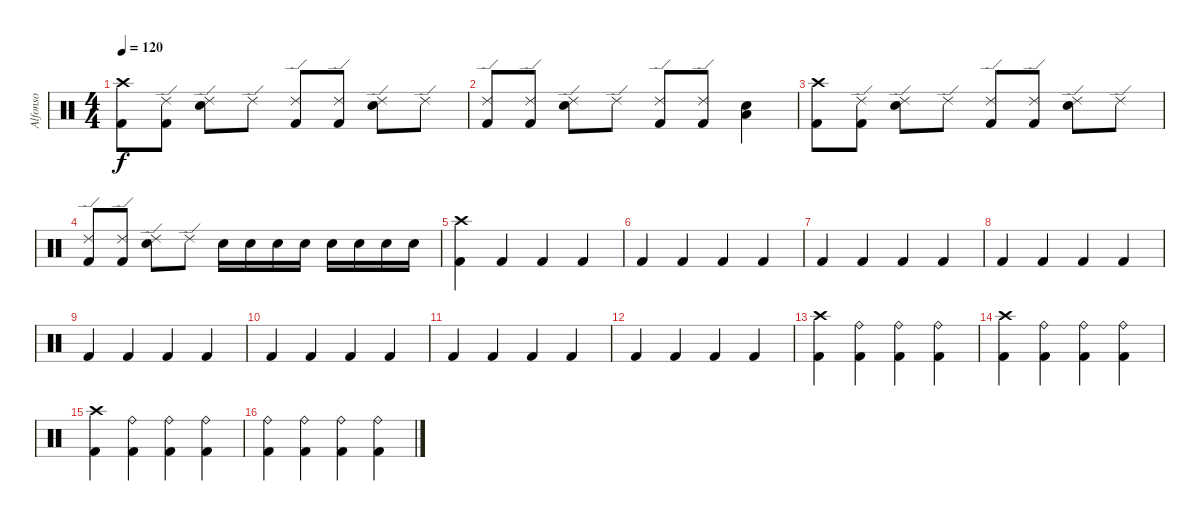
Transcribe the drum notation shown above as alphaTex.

\track ("Alfonso" "Alfonso") {instrument percussion}
\staff {score}
\articulation defaults
\ts (4 4)
\tempo 120
\clef neutral
\ks c
("Crash high (hit)" "Kick (hit) 2").8{dy f} ("Ride (edge) 2" "Kick (hit) 2").8 ("Ride (edge) 2" "Electric Snare (hit)").8 "Ride (edge) 2".8 ("Ride (edge) 2" "Kick (hit) 2").8 ("Ride (edge) 2" "Kick (hit) 2").8 ("Ride (edge) 2" "Electric Snare (hit)").8 "Ride (edge) 2".8 |
("Ride (edge) 2" "Kick (hit) 2").8 ("Ride (edge) 2" "Kick (hit) 2").8 ("Ride (edge) 2" "Electric Snare (hit)").8 "Ride (edge) 2".8 ("Ride (edge) 2" "Kick (hit) 2").8 ("Ride (edge) 2" "Kick (hit) 2").8 ("Low Floor Tom (hit)" "Electric Snare (hit)").4 |
("Crash high (hit)" "Kick (hit) 2").8 ("Ride (edge) 2" "Kick (hit) 2").8 ("Ride (edge) 2" "Electric Snare (hit)").8 "Ride (edge) 2".8 ("Ride (edge) 2" "Kick (hit) 2").8 ("Ride (edge) 2" "Kick (hit) 2").8 ("Ride (edge) 2" "Electric Snare (hit)").8 "Ride (edge) 2".8 |
("Ride (edge) 2" "Kick (hit) 2").8 ("Ride (edge) 2" "Kick (hit) 2").8 ("Ride (edge) 2" "Electric Snare (hit)").8 "Ride (edge) 2".8 "Electric Snare (hit)".16 "Electric Snare (hit)".16 "Electric Snare (hit)".16 "Electric Snare (hit)".16 "Electric Snare (hit)".16 "Electric Snare (hit)".16 "Electric Snare (hit)".16 "Electric Snare (hit)".16 |
("Crash high (hit)" "Kick (hit) 2").4 "Kick (hit) 2".4 "Kick (hit) 2".4 "Kick (hit) 2".4 |
"Kick (hit) 2".4 "Kick (hit) 2".4 "Kick (hit) 2".4 "Kick (hit) 2".4 |
"Kick (hit) 2".4 "Kick (hit) 2".4 "Kick (hit) 2".4 "Kick (hit) 2".4 |
"Kick (hit) 2".4 "Kick (hit) 2".4 "Kick (hit) 2".4 "Kick (hit) 2".4 |
"Kick (hit) 2".4 "Kick (hit) 2".4 "Kick (hit) 2".4 "Kick (hit) 2".4 |
"Kick (hit) 2".4 "Kick (hit) 2".4 "Kick (hit) 2".4 "Kick (hit) 2".4 |
"Kick (hit) 2".4 "Kick (hit) 2".4 "Kick (hit) 2".4 "Kick (hit) 2".4 |
"Kick (hit) 2".4 "Kick (hit) 2".4 "Kick (hit) 2".4 "Kick (hit) 2".4 |
("Crash high (hit)" "Kick (hit) 2").4 ("Ride (bell)" "Kick (hit) 2").4 ("Ride (bell)" "Kick (hit) 2").4 ("Ride (bell)" "Kick (hit) 2").4 |
("Crash high (hit)" "Kick (hit) 2").4 ("Ride (bell)" "Kick (hit) 2").4 ("Ride (bell)" "Kick (hit) 2").4 ("Ride (bell)" "Kick (hit) 2").4 |
("Crash high (hit)" "Kick (hit) 2").4 ("Ride (bell)" "Kick (hit) 2").4 ("Ride (bell)" "Kick (hit) 2").4 ("Ride (bell)" "Kick (hit) 2").4 |
("Ride (bell)" "Kick (hit) 2").4 ("Ride (bell)" "Kick (hit) 2").4 ("Ride (bell)" "Kick (hit) 2").4 ("Ride (bell)" "Kick (hit) 2").4
